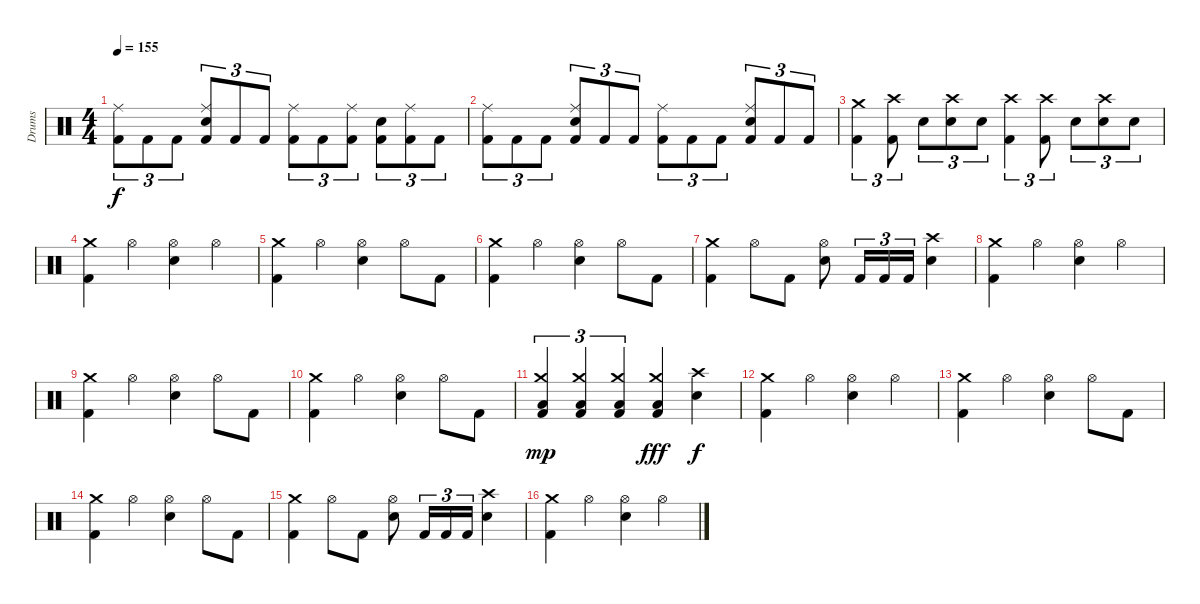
\track ("Drums" "Drums") {instrument percussion}
\staff {score}
\articulation defaults
\ts (4 4)
\tempo 155
\clef neutral
\ks c
("Kick (hit) 2" "Ride (middle)").8{tu (3 2) dy f} "Kick (hit) 2".8{tu (3 2)} "Kick (hit) 2".8{tu (3 2)} ("Kick (hit) 2" "Electric Snare (hit)" "Ride (middle)").8{tu (3 2)} "Kick (hit) 2".8{tu (3 2)} "Kick (hit) 2".8{tu (3 2)} ("Kick (hit) 2" "Ride (middle)").8{tu (3 2)} "Kick (hit) 2".8{tu (3 2)} ("Kick (hit) 2" "Ride (middle)").8{tu (3 2)} ("Kick (hit) 2" "Electric Snare (hit)").8{tu (3 2)} ("Kick (hit) 2" "Ride (middle)").8{tu (3 2)} "Kick (hit) 2".8{tu (3 2)} |
("Kick (hit) 2" "Ride (middle)").8{tu (3 2)} "Kick (hit) 2".8{tu (3 2)} "Kick (hit) 2".8{tu (3 2)} ("Kick (hit) 2" "Electric Snare (hit)" "Ride (middle)").8{tu (3 2)} "Kick (hit) 2".8{tu (3 2)} "Kick (hit) 2".8{tu (3 2)} ("Kick (hit) 2" "Ride (middle)").8{tu (3 2)} "Kick (hit) 2".8{tu (3 2)} "Kick (hit) 2".8{tu (3 2)} ("Kick (hit) 2" "Electric Snare (hit)" "Ride (middle)").8{tu (3 2)} "Kick (hit) 2".8{tu (3 2)} "Kick (hit) 2".8{tu (3 2)} |
("Kick (hit) 2" "Crash medium (hit)").4{tu (3 2)} ("Kick (hit) 2" "Crash high (hit)").8{tu (3 2)} "Electric Snare (hit)".8{tu (3 2)} ("Electric Snare (hit)" "Crash high (hit)").8{tu (3 2)} "Electric Snare (hit)".8{tu (3 2)} ("Kick (hit) 2" "Crash high (hit)").4{tu (3 2)} ("Kick (hit) 2" "Crash high (hit)").8{tu (3 2)} "Electric Snare (hit)".8{tu (3 2)} ("Electric Snare (hit)" "Crash high (hit)").8{tu (3 2)} "Electric Snare (hit)".8{tu (3 2)} |
("Kick (hit) 2" "Crash medium (hit)").4 "Hi-Hat (open)".4 ("Electric Snare (hit)" "Hi-Hat (open)").4 "Hi-Hat (open)".4 |
("Kick (hit) 2" "Crash medium (hit)").4 "Hi-Hat (open)".4 ("Electric Snare (hit)" "Hi-Hat (open)").4 "Hi-Hat (open)".8 "Kick (hit) 2".8 |
("Kick (hit) 2" "Crash medium (hit)").4 "Hi-Hat (open)".4 ("Electric Snare (hit)" "Hi-Hat (open)").4 "Hi-Hat (open)".8 "Kick (hit) 2".8 |
("Kick (hit) 2" "Crash medium (hit)").4 "Hi-Hat (open)".8 "Kick (hit) 2".8 ("Electric Snare (hit)" "Hi-Hat (open)").8 "Kick (hit) 2".16{tu (3 2)} "Kick (hit) 2".16{tu (3 2)} "Kick (hit) 2".16{tu (3 2)} ("Electric Snare (hit)" "Crash high (hit)").4 |
("Kick (hit) 2" "Crash medium (hit)").4 "Hi-Hat (open)".4 ("Electric Snare (hit)" "Hi-Hat (open)").4 "Hi-Hat (open)".4 |
("Kick (hit) 2" "Crash medium (hit)").4 "Hi-Hat (open)".4 ("Electric Snare (hit)" "Hi-Hat (open)").4 "Hi-Hat (open)".8 "Kick (hit) 2".8 |
("Kick (hit) 2" "Crash medium (hit)").4 "Hi-Hat (open)".4 ("Electric Snare (hit)" "Hi-Hat (open)").4 "Hi-Hat (open)".8 "Kick (hit) 2".8 |
("Kick (hit) 2" "Low Tom (hit)" "Crash medium (hit)").4{tu (3 2) dy mp} ("Kick (hit) 2" "Low Tom (hit)" "Crash medium (hit)").4{tu (3 2)} ("Kick (hit) 2" "Low Tom (hit)" "Crash medium (hit)").4{tu (3 2)} ("Kick (hit) 2" "Low Tom (hit)" "Crash medium (hit)").4{dy fff} ("Electric Snare (hit)" "Crash high (hit)").4{dy f} |
("Kick (hit) 2" "Crash medium (hit)").4 "Hi-Hat (open)".4 ("Electric Snare (hit)" "Hi-Hat (open)").4 "Hi-Hat (open)".4 |
("Kick (hit) 2" "Crash medium (hit)").4 "Hi-Hat (open)".4 ("Electric Snare (hit)" "Hi-Hat (open)").4 "Hi-Hat (open)".8 "Kick (hit) 2".8 |
("Kick (hit) 2" "Crash medium (hit)").4 "Hi-Hat (open)".4 ("Electric Snare (hit)" "Hi-Hat (open)").4 "Hi-Hat (open)".8 "Kick (hit) 2".8 |
("Kick (hit) 2" "Crash medium (hit)").4 "Hi-Hat (open)".8 "Kick (hit) 2".8 ("Electric Snare (hit)" "Hi-Hat (open)").8 "Kick (hit) 2".16{tu (3 2)} "Kick (hit) 2".16{tu (3 2)} "Kick (hit) 2".16{tu (3 2)} ("Electric Snare (hit)" "Crash high (hit)").4 |
("Kick (hit) 2" "Crash medium (hit)").4 "Hi-Hat (open)".4 ("Electric Snare (hit)" "Hi-Hat (open)").4 "Hi-Hat (open)".4
